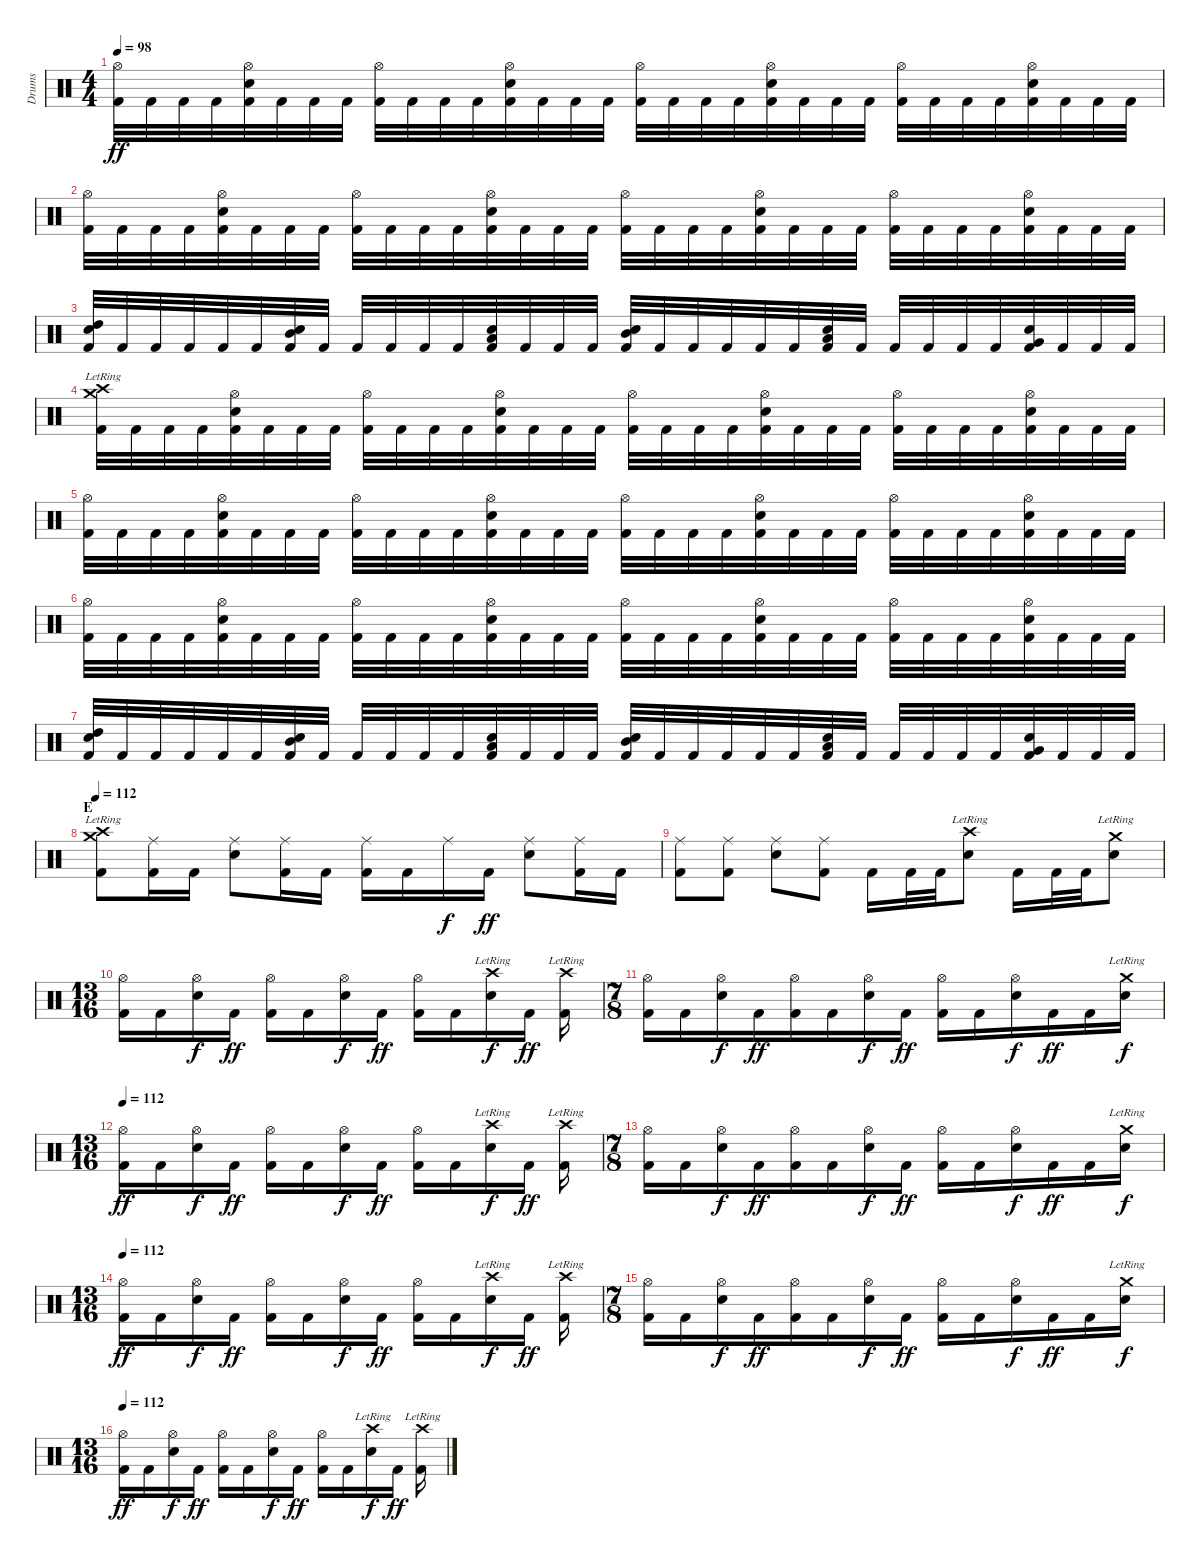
\track ("Drums" "Drums") {instrument percussion}
\staff {score}
\articulation defaults
\ts (4 4)
\tempo 98
\clef neutral
\ks c
("Hi-Hat (open)" "Kick (hit) 2").32{dy ff} "Kick (hit) 2".32 "Kick (hit) 2".32 "Kick (hit) 2".32 ("Hi-Hat (open)" "Snare (hit) 2" "Kick (hit) 2").32 "Kick (hit) 2".32 "Kick (hit) 2".32 "Kick (hit) 2".32 ("Hi-Hat (open)" "Kick (hit) 2").32 "Kick (hit) 2".32 "Kick (hit) 2".32 "Kick (hit) 2".32 ("Hi-Hat (open)" "Snare (hit) 2" "Kick (hit) 2").32 "Kick (hit) 2".32 "Kick (hit) 2".32 "Kick (hit) 2".32 ("Hi-Hat (open)" "Kick (hit) 2").32 "Kick (hit) 2".32 "Kick (hit) 2".32 "Kick (hit) 2".32 ("Hi-Hat (open)" "Snare (hit) 2" "Kick (hit) 2").32 "Kick (hit) 2".32 "Kick (hit) 2".32 "Kick (hit) 2".32 ("Hi-Hat (open)" "Kick (hit) 2").32 "Kick (hit) 2".32 "Kick (hit) 2".32 "Kick (hit) 2".32 ("Hi-Hat (open)" "Snare (hit) 2" "Kick (hit) 2").32 "Kick (hit) 2".32 "Kick (hit) 2".32 "Kick (hit) 2".32 |
("Hi-Hat (open)" "Kick (hit) 2").32 "Kick (hit) 2".32 "Kick (hit) 2".32 "Kick (hit) 2".32 ("Hi-Hat (open)" "Snare (hit) 2" "Kick (hit) 2").32 "Kick (hit) 2".32 "Kick (hit) 2".32 "Kick (hit) 2".32 ("Hi-Hat (open)" "Kick (hit) 2").32 "Kick (hit) 2".32 "Kick (hit) 2".32 "Kick (hit) 2".32 ("Hi-Hat (open)" "Snare (hit) 2" "Kick (hit) 2").32 "Kick (hit) 2".32 "Kick (hit) 2".32 "Kick (hit) 2".32 ("Hi-Hat (open)" "Kick (hit) 2").32 "Kick (hit) 2".32 "Kick (hit) 2".32 "Kick (hit) 2".32 ("Hi-Hat (open)" "Snare (hit) 2" "Kick (hit) 2").32 "Kick (hit) 2".32 "Kick (hit) 2".32 "Kick (hit) 2".32 ("Hi-Hat (open)" "Kick (hit) 2").32 "Kick (hit) 2".32 "Kick (hit) 2".32 "Kick (hit) 2".32 ("Hi-Hat (open)" "Snare (hit) 2" "Kick (hit) 2").32 "Kick (hit) 2".32 "Kick (hit) 2".32 "Kick (hit) 2".32 |
("Electric Snare (hit)" "High Tom (hit)" "Kick (hit) 2").32 "Kick (hit) 2".32 "Kick (hit) 2".32 "Kick (hit) 2".32 "Kick (hit) 2".32 "Kick (hit) 2".32 ("Electric Snare (hit)" "Mid Tom (hit)" "Kick (hit) 2").32 "Kick (hit) 2".32 "Kick (hit) 2".32 "Kick (hit) 2".32 "Kick (hit) 2".32 "Kick (hit) 2".32 ("Electric Snare (hit)" "Low Tom (hit)" "Kick (hit) 2").32 "Kick (hit) 2".32 "Kick (hit) 2".32 "Kick (hit) 2".32 ("Electric Snare (hit)" "Mid Tom (hit)" "Kick (hit) 2").32 "Kick (hit) 2".32 "Kick (hit) 2".32 "Kick (hit) 2".32 "Kick (hit) 2".32 "Kick (hit) 2".32 ("Electric Snare (hit)" "Low Tom (hit)" "Kick (hit) 2").32 "Kick (hit) 2".32 "Kick (hit) 2".32 "Kick (hit) 2".32 "Kick (hit) 2".32 "Kick (hit) 2".32 ("Electric Snare (hit)" "Very Low Tom (hit)" "Kick (hit) 2").32 "Kick (hit) 2".32 "Kick (hit) 2".32 "Kick (hit) 2".32 |
("Crash medium (hit)"{lr} "Crash high (hit)" "Kick (hit) 2").32 "Kick (hit) 2".32 "Kick (hit) 2".32 "Kick (hit) 2".32 ("Hi-Hat (open)" "Snare (hit) 2" "Kick (hit) 2").32 "Kick (hit) 2".32 "Kick (hit) 2".32 "Kick (hit) 2".32 ("Hi-Hat (open)" "Kick (hit) 2").32 "Kick (hit) 2".32 "Kick (hit) 2".32 "Kick (hit) 2".32 ("Hi-Hat (open)" "Snare (hit) 2" "Kick (hit) 2").32 "Kick (hit) 2".32 "Kick (hit) 2".32 "Kick (hit) 2".32 ("Hi-Hat (open)" "Kick (hit) 2").32 "Kick (hit) 2".32 "Kick (hit) 2".32 "Kick (hit) 2".32 ("Hi-Hat (open)" "Snare (hit) 2" "Kick (hit) 2").32 "Kick (hit) 2".32 "Kick (hit) 2".32 "Kick (hit) 2".32 ("Hi-Hat (open)" "Kick (hit) 2").32 "Kick (hit) 2".32 "Kick (hit) 2".32 "Kick (hit) 2".32 ("Hi-Hat (open)" "Snare (hit) 2" "Kick (hit) 2").32 "Kick (hit) 2".32 "Kick (hit) 2".32 "Kick (hit) 2".32 |
("Hi-Hat (open)" "Kick (hit) 2").32 "Kick (hit) 2".32 "Kick (hit) 2".32 "Kick (hit) 2".32 ("Hi-Hat (open)" "Snare (hit) 2" "Kick (hit) 2").32 "Kick (hit) 2".32 "Kick (hit) 2".32 "Kick (hit) 2".32 ("Hi-Hat (open)" "Kick (hit) 2").32 "Kick (hit) 2".32 "Kick (hit) 2".32 "Kick (hit) 2".32 ("Hi-Hat (open)" "Snare (hit) 2" "Kick (hit) 2").32 "Kick (hit) 2".32 "Kick (hit) 2".32 "Kick (hit) 2".32 ("Hi-Hat (open)" "Kick (hit) 2").32 "Kick (hit) 2".32 "Kick (hit) 2".32 "Kick (hit) 2".32 ("Hi-Hat (open)" "Snare (hit) 2" "Kick (hit) 2").32 "Kick (hit) 2".32 "Kick (hit) 2".32 "Kick (hit) 2".32 ("Hi-Hat (open)" "Kick (hit) 2").32 "Kick (hit) 2".32 "Kick (hit) 2".32 "Kick (hit) 2".32 ("Hi-Hat (open)" "Snare (hit) 2" "Kick (hit) 2").32 "Kick (hit) 2".32 "Kick (hit) 2".32 "Kick (hit) 2".32 |
("Hi-Hat (open)" "Kick (hit) 2").32 "Kick (hit) 2".32 "Kick (hit) 2".32 "Kick (hit) 2".32 ("Hi-Hat (open)" "Snare (hit) 2" "Kick (hit) 2").32 "Kick (hit) 2".32 "Kick (hit) 2".32 "Kick (hit) 2".32 ("Hi-Hat (open)" "Kick (hit) 2").32 "Kick (hit) 2".32 "Kick (hit) 2".32 "Kick (hit) 2".32 ("Hi-Hat (open)" "Snare (hit) 2" "Kick (hit) 2").32 "Kick (hit) 2".32 "Kick (hit) 2".32 "Kick (hit) 2".32 ("Hi-Hat (open)" "Kick (hit) 2").32 "Kick (hit) 2".32 "Kick (hit) 2".32 "Kick (hit) 2".32 ("Hi-Hat (open)" "Snare (hit) 2" "Kick (hit) 2").32 "Kick (hit) 2".32 "Kick (hit) 2".32 "Kick (hit) 2".32 ("Hi-Hat (open)" "Kick (hit) 2").32 "Kick (hit) 2".32 "Kick (hit) 2".32 "Kick (hit) 2".32 ("Hi-Hat (open)" "Snare (hit) 2" "Kick (hit) 2").32 "Kick (hit) 2".32 "Kick (hit) 2".32 "Kick (hit) 2".32 |
("Electric Snare (hit)" "High Tom (hit)" "Kick (hit) 2").32 "Kick (hit) 2".32 "Kick (hit) 2".32 "Kick (hit) 2".32 "Kick (hit) 2".32 "Kick (hit) 2".32 ("Electric Snare (hit)" "Mid Tom (hit)" "Kick (hit) 2").32 "Kick (hit) 2".32 "Kick (hit) 2".32 "Kick (hit) 2".32 "Kick (hit) 2".32 "Kick (hit) 2".32 ("Electric Snare (hit)" "Low Tom (hit)" "Kick (hit) 2").32 "Kick (hit) 2".32 "Kick (hit) 2".32 "Kick (hit) 2".32 ("Electric Snare (hit)" "Mid Tom (hit)" "Kick (hit) 2").32 "Kick (hit) 2".32 "Kick (hit) 2".32 "Kick (hit) 2".32 "Kick (hit) 2".32 "Kick (hit) 2".32 ("Electric Snare (hit)" "Low Tom (hit)" "Kick (hit) 2").32 "Kick (hit) 2".32 "Kick (hit) 2".32 "Kick (hit) 2".32 "Kick (hit) 2".32 "Kick (hit) 2".32 ("Electric Snare (hit)" "Very Low Tom (hit)" "Kick (hit) 2").32 "Kick (hit) 2".32 "Kick (hit) 2".32 "Kick (hit) 2".32 |
\section ("" "E")
\tempo 112
("Crash medium (hit)"{lr} "Crash high (hit)" "Kick (hit) 2").8 ("Ride (middle)" "Kick (hit) 2").16 "Kick (hit) 2".16 ("Ride (middle)" "Snare (hit) 2").8 ("Ride (middle)" "Kick (hit) 2").16 "Kick (hit) 2".16 ("Ride (middle)" "Kick (hit) 2").16 "Kick (hit) 2".16 "Ride (middle)".16{dy f} "Kick (hit) 2".16{dy ff} ("Ride (middle)" "Snare (hit) 2").8 ("Ride (middle)" "Kick (hit) 2").16 "Kick (hit) 2".16 |
("Ride (middle)" "Kick (hit) 2").8 ("Ride (middle)" "Kick (hit) 2").8 ("Ride (middle)" "Snare (hit) 2").8 ("Ride (middle)" "Kick (hit) 2").8 "Kick (hit) 2".16 "Kick (hit) 2".32 "Kick (hit) 2".32 ("Crash high (hit)"{lr} "Snare (hit) 2").8 "Kick (hit) 2".16 "Kick (hit) 2".32 "Kick (hit) 2".32 ("Crash medium (hit)"{lr} "Snare (hit) 2").8 |
\ts (13 16)
("Hi-Hat (open)" "Kick (hit) 2").16 "Kick (hit) 2".16 ("Hi-Hat (open)" "Snare (hit) 2").16{dy f} "Kick (hit) 2".16{dy ff} ("Hi-Hat (open)" "Kick (hit) 2").16 "Kick (hit) 2".16 ("Hi-Hat (open)" "Snare (hit) 2").16{dy f} "Kick (hit) 2".16{dy ff} ("Hi-Hat (open)" "Kick (hit) 2").16 "Kick (hit) 2".16 ("Crash high (hit)"{lr} "Snare (hit) 2").16{dy f} "Kick (hit) 2".16{dy ff} ("Crash high (hit)"{lr} "Kick (hit) 2").16 |
\ts (7 8)
("Hi-Hat (open)" "Kick (hit) 2").16 "Kick (hit) 2".16 ("Hi-Hat (open)" "Snare (hit) 2").16{dy f} "Kick (hit) 2".16{dy ff} ("Hi-Hat (open)" "Kick (hit) 2").16 "Kick (hit) 2".16 ("Hi-Hat (open)" "Snare (hit) 2").16{dy f} "Kick (hit) 2".16{dy ff} ("Hi-Hat (open)" "Kick (hit) 2").16 "Kick (hit) 2".16 ("Hi-Hat (open)" "Snare (hit) 2").16{dy f} "Kick (hit) 2".16{dy ff} "Kick (hit) 2".16 ("Crash medium (hit)"{lr} "Snare (hit) 2").16{dy f} |
\ts (13 16)
\tempo 112
("Hi-Hat (open)" "Kick (hit) 2").16{dy ff} "Kick (hit) 2".16 ("Hi-Hat (open)" "Snare (hit) 2").16{dy f} "Kick (hit) 2".16{dy ff} ("Hi-Hat (open)" "Kick (hit) 2").16 "Kick (hit) 2".16 ("Hi-Hat (open)" "Snare (hit) 2").16{dy f} "Kick (hit) 2".16{dy ff} ("Hi-Hat (open)" "Kick (hit) 2").16 "Kick (hit) 2".16 ("Crash high (hit)"{lr} "Snare (hit) 2").16{dy f} "Kick (hit) 2".16{dy ff} ("Crash high (hit)"{lr} "Kick (hit) 2").16 |
\ts (7 8)
("Hi-Hat (open)" "Kick (hit) 2").16 "Kick (hit) 2".16 ("Hi-Hat (open)" "Snare (hit) 2").16{dy f} "Kick (hit) 2".16{dy ff} ("Hi-Hat (open)" "Kick (hit) 2").16 "Kick (hit) 2".16 ("Hi-Hat (open)" "Snare (hit) 2").16{dy f} "Kick (hit) 2".16{dy ff} ("Hi-Hat (open)" "Kick (hit) 2").16 "Kick (hit) 2".16 ("Hi-Hat (open)" "Snare (hit) 2").16{dy f} "Kick (hit) 2".16{dy ff} "Kick (hit) 2".16 ("Crash medium (hit)"{lr} "Snare (hit) 2").16{dy f} |
\ts (13 16)
\tempo 112
("Hi-Hat (open)" "Kick (hit) 2").16{dy ff} "Kick (hit) 2".16 ("Hi-Hat (open)" "Snare (hit) 2").16{dy f} "Kick (hit) 2".16{dy ff} ("Hi-Hat (open)" "Kick (hit) 2").16 "Kick (hit) 2".16 ("Hi-Hat (open)" "Snare (hit) 2").16{dy f} "Kick (hit) 2".16{dy ff} ("Hi-Hat (open)" "Kick (hit) 2").16 "Kick (hit) 2".16 ("Crash high (hit)"{lr} "Snare (hit) 2").16{dy f} "Kick (hit) 2".16{dy ff} ("Crash high (hit)"{lr} "Kick (hit) 2").16 |
\ts (7 8)
("Hi-Hat (open)" "Kick (hit) 2").16 "Kick (hit) 2".16 ("Hi-Hat (open)" "Snare (hit) 2").16{dy f} "Kick (hit) 2".16{dy ff} ("Hi-Hat (open)" "Kick (hit) 2").16 "Kick (hit) 2".16 ("Hi-Hat (open)" "Snare (hit) 2").16{dy f} "Kick (hit) 2".16{dy ff} ("Hi-Hat (open)" "Kick (hit) 2").16 "Kick (hit) 2".16 ("Hi-Hat (open)" "Snare (hit) 2").16{dy f} "Kick (hit) 2".16{dy ff} "Kick (hit) 2".16 ("Crash medium (hit)"{lr} "Snare (hit) 2").16{dy f} |
\ts (13 16)
\tempo 112
("Hi-Hat (open)" "Kick (hit) 2").16{dy ff} "Kick (hit) 2".16 ("Hi-Hat (open)" "Snare (hit) 2").16{dy f} "Kick (hit) 2".16{dy ff} ("Hi-Hat (open)" "Kick (hit) 2").16 "Kick (hit) 2".16 ("Hi-Hat (open)" "Snare (hit) 2").16{dy f} "Kick (hit) 2".16{dy ff} ("Hi-Hat (open)" "Kick (hit) 2").16 "Kick (hit) 2".16 ("Crash high (hit)"{lr} "Snare (hit) 2").16{dy f} "Kick (hit) 2".16{dy ff} ("Crash high (hit)"{lr} "Kick (hit) 2").16
